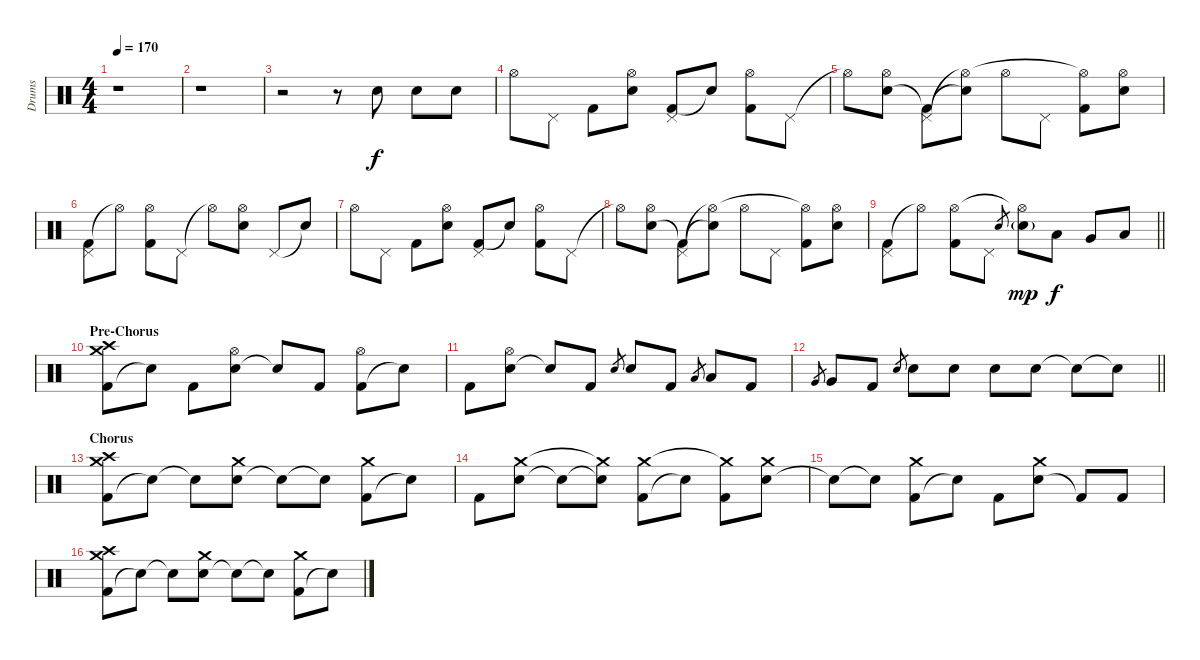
\track ("Drums" "Drums") {instrument percussion}
\staff {score}
\articulation defaults
\ts (4 4)
\tempo 170
\clef neutral
\ks c
r.1{dy f} |
r.1 |
r.2 r.8 "Electric Snare (hit)".8 "Electric Snare (hit)".8 "Electric Snare (hit)".8 |
"Hi-Hat (open)".8 "Pedal Hi-Hat (hit)".8 "Kick (hit) 2".8 ("Electric Snare (hit)" "Hi-Hat (open)").8 ("Kick (hit) 2" "Pedal Hi-Hat (hit)").8 "Snare (hit)"{t}.8 ("Kick (hit) 2" "Hi-Hat (open)").8 "Pedal Hi-Hat (hit)".8 |
"Hi-Hat (open)"{t}.8 ("Electric Snare (hit)" "Hi-Hat (open)").8 ("Kick (hit) 2"{t} "Pedal Hi-Hat (hit)").8 ("Electric Snare (hit)"{t} "Hi-Hat (open)"{t}).8 "Hi-Hat (open)".8 "Pedal Hi-Hat (hit)".8 ("Kick (hit) 2" "Hi-Hat (open)"{t}).8 ("Electric Snare (hit)" "Hi-Hat (open)").8 |
("Kick (hit) 2" "Pedal Hi-Hat (hit)").8 "Hi-Hat (open)"{t}.8 ("Kick (hit) 2" "Hi-Hat (open)").8 "Pedal Hi-Hat (hit)".8 "Hi-Hat (open)"{t}.8 ("Electric Snare (hit)" "Hi-Hat (open)").8 "Pedal Hi-Hat (hit)".8 "Snare (hit)"{t}.8 |
"Hi-Hat (open)".8 "Pedal Hi-Hat (hit)".8 "Kick (hit) 2".8 ("Electric Snare (hit)" "Hi-Hat (open)").8 ("Kick (hit) 2" "Pedal Hi-Hat (hit)").8 "Snare (hit)"{t}.8 ("Kick (hit) 2" "Hi-Hat (open)").8 "Pedal Hi-Hat (hit)".8 |
"Hi-Hat (open)"{t}.8 ("Electric Snare (hit)" "Hi-Hat (open)").8 ("Kick (hit) 2"{t} "Pedal Hi-Hat (hit)").8 ("Electric Snare (hit)"{t} "Hi-Hat (open)"{t}).8 "Hi-Hat (open)".8 "Pedal Hi-Hat (hit)".8 ("Kick (hit) 2" "Hi-Hat (open)"{t}).8 ("Electric Snare (hit)" "Hi-Hat (open)").8 |
\barLineRight lightlight
("Kick (hit) 2" "Pedal Hi-Hat (hit)").8 "Hi-Hat (open)"{t}.8 ("Kick (hit) 2" "Hi-Hat (open)").8 "Pedal Hi-Hat (hit)".8 "Electric Snare (hit)".8{gr} ("Electric Snare (hit)"{g} "Hi-Hat (open)"{t}).8{dy mp} "Low Tom (hit)".8{dy f} "Very Low Tom (hit)".8 "Low Floor Tom (hit)".8 |
\section ("" "Pre-Chorus")
("Kick (hit) 2" "Crash medium (hit)" "Crash high (hit)").8 "Snare (hit)"{t}.8 "Kick (hit) 2".8 ("Electric Snare (hit)" "Hi-Hat (open)").8 "Electric Snare (hit)"{t}.8 "Kick (hit) 2".8 ("Kick (hit) 2" "Hi-Hat (open)").8 "Snare (hit)"{t}.8 |
"Kick (hit) 2".8 ("Electric Snare (hit)" "Hi-Hat (open)").8 "Snare (hit)"{t}.8 "Kick (hit) 2".8 "Electric Snare (hit)".8{gr} "Electric Snare (hit)".8 "Kick (hit) 2".8 "Low Tom (hit)".8{gr} "Low Tom (hit)".8 "Kick (hit) 2".8 |
\barLineRight lightlight "Very Low Tom (hit)".8{gr} "Very Low Tom (hit)".8 "Kick (hit) 2".8 "Electric Snare (hit)".8{gr} "Electric Snare (hit)".8 "Electric Snare (hit)".8 "Electric Snare (hit)".8 "Electric Snare (hit)".8 "Snare (hit)"{t}.8 "Snare (hit)"{t}.8
|
\section ("" "Chorus")
("Kick (hit) 2" "Crash medium (hit)" "Crash high (hit)").8 "Snare (hit)"{t}.8 "Snare (hit)"{t}.8 ("Electric Snare (hit)" "Crash medium (hit)").8 "Snare (hit)"{t}.8 "Snare (hit)"{t}.8 ("Kick (hit) 2" "Crash medium (hit)").8 "Snare (hit)"{t}.8 |
"Kick (hit) 2".8 ("Electric Snare (hit)" "Crash medium (hit)").8 "Snare (hit)"{t}.8 ("Snare (hit)"{t} "Crash medium (hit)"{t}).8 ("Kick (hit) 2" "Crash medium (hit)").8 "Snare (hit)"{t}.8 ("Kick (hit) 2" "Crash medium (hit)"{t}).8 ("Electric Snare (hit)" "Crash medium (hit)").8 |
"Snare (hit)"{t}.8 "Snare (hit)"{t}.8 ("Kick (hit) 2" "Crash medium (hit)").8 "Snare (hit)"{t}.8 "Kick (hit) 2".8 ("Electric Snare (hit)" "Crash medium (hit)").8 "Kick (hit) 2"{t}.8 "Kick (hit) 2".8 |
("Kick (hit) 2" "Crash medium (hit)" "Crash high (hit)").8 "Snare (hit)"{t}.8 "Snare (hit)"{t}.8 ("Electric Snare (hit)" "Crash medium (hit)").8 "Snare (hit)"{t}.8 "Snare (hit)"{t}.8 ("Kick (hit) 2" "Crash medium (hit)").8 "Snare (hit)"{t}.8
